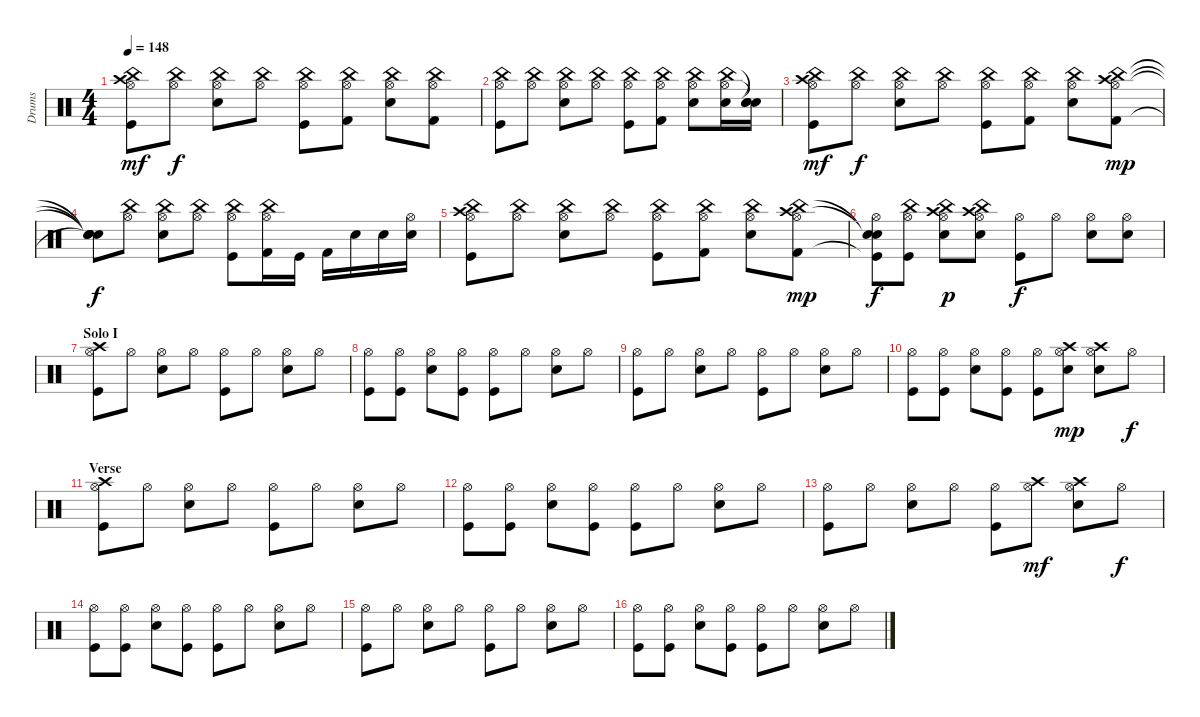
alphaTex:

\track ("Drums" "Drums") {instrument percussion}
\staff {score}
\articulation defaults
\ts (4 4)
\tempo 148
\clef neutral
\ks c
("Crash high (hit)" "Hi-Hat (open)" "China (hit)" "Kick (hit)").8{dy mf} ("Hi-Hat (open)" "China (hit)").8{dy f} ("Hi-Hat (open)" "China (hit)" "Snare (hit) 2").8 ("Hi-Hat (open)" "China (hit)").8 ("Hi-Hat (open)" "China (hit)" "Kick (hit)").8 ("Hi-Hat (open)" "China (hit)" "Kick (hit) 2").8 ("Hi-Hat (open)" "China (hit)" "Snare (hit) 2").8 ("Hi-Hat (open)" "China (hit)" "Kick (hit) 2").8 |
("Hi-Hat (open)" "China (hit)" "Kick (hit)").8 ("Hi-Hat (open)" "China (hit)").8 ("Hi-Hat (open)" "China (hit)" "Snare (hit) 2").8 ("Hi-Hat (open)" "China (hit)").8 ("Hi-Hat (open)" "China (hit)" "Kick (hit)").8 ("Hi-Hat (open)" "China (hit)" "Kick (hit) 2").8 ("Hi-Hat (open)" "China (hit)" "Snare (hit) 2").8 ("Hi-Hat (open)" "China (hit)" "Snare (hit) 2").16 ("Snare (hit)"{t} "Snare (hit)"{t} "Electric Snare (hit)").16 |
("Crash high (hit)" "Hi-Hat (open)" "China (hit)" "Kick (hit)").8{dy mf} ("Hi-Hat (open)" "China (hit)").8{dy f} ("Hi-Hat (open)" "China (hit)" "Snare (hit) 2").8 ("Hi-Hat (open)" "China (hit)").8 ("Hi-Hat (open)" "China (hit)" "Kick (hit)").8 ("Hi-Hat (open)" "China (hit)" "Kick (hit) 2").8 ("Hi-Hat (open)" "China (hit)" "Snare (hit) 2").8 ("Crash high (hit)" "Hi-Hat (open)" "China (hit)" "Kick (hit) 2").8{dy mp} |
("Snare (hit)"{t} "Snare (hit)"{t} "Snare (hit)"{t} "Snare (hit)"{t}).8{dy f} ("Hi-Hat (open)" "China (hit)").8 ("Hi-Hat (open)" "China (hit)" "Snare (hit) 2").8 ("Hi-Hat (open)" "China (hit)").8 ("Hi-Hat (open)" "China (hit)" "Kick (hit)").8 ("Hi-Hat (open)" "China (hit)" "Kick (hit) 2").16 "Kick (hit)".16 "Kick (hit) 2".16 "Snare (hit) 2".16 "Electric Snare (hit)".16 ("Hi-Hat (open)" "Snare (hit) 2").16 |
("Crash high (hit)" "Hi-Hat (open)" "China (hit)" "Kick (hit)").8 ("Hi-Hat (open)" "China (hit)").8 ("Hi-Hat (open)" "China (hit)" "Snare (hit) 2").8 ("Hi-Hat (open)" "China (hit)").8 ("Hi-Hat (open)" "China (hit)" "Kick (hit)").8 ("Hi-Hat (open)" "China (hit)" "Kick (hit) 2").8 ("Hi-Hat (open)" "China (hit)" "Snare (hit) 2").8 ("Crash high (hit)" "Hi-Hat (open)" "China (hit)" "Kick (hit) 2").8{dy mp} |
("Snare (hit)"{t} "Hi-Hat (open)" "Snare (hit)"{t} "Kick (hit)"{t}).8{dy f} ("Hi-Hat (open)" "China (hit)" "Kick (hit)").8 ("Crash high (hit)" "Hi-Hat (open)" "China (hit)" "Snare (hit) 2").8{dy p} ("Crash high (hit)" "Hi-Hat (open)" "China (hit)" "Snare (hit) 2").8 ("Hi-Hat (open)" "Kick (hit)").8{dy f} "Hi-Hat (open)".8 ("Hi-Hat (open)" "Snare (hit) 2").8 ("Hi-Hat (open)" "Snare (hit) 2").8 |
\section ("" "Solo I")
("Crash high (hit)" "Hi-Hat (open)" "Kick (hit)").8 "Hi-Hat (open)".8 ("Hi-Hat (open)" "Snare (hit) 2").8 "Hi-Hat (open)".8 ("Hi-Hat (open)" "Kick (hit)").8 "Hi-Hat (open)".8 ("Hi-Hat (open)" "Snare (hit) 2").8 "Hi-Hat (open)".8 |
("Hi-Hat (open)" "Kick (hit)").8 ("Hi-Hat (open)" "Kick (hit)").8 ("Hi-Hat (open)" "Snare (hit) 2").8 ("Hi-Hat (open)" "Kick (hit)").8 ("Hi-Hat (open)" "Kick (hit)").8 "Hi-Hat (open)".8 ("Hi-Hat (open)" "Snare (hit) 2").8 "Hi-Hat (open)".8 |
("Hi-Hat (open)" "Kick (hit)").8 "Hi-Hat (open)".8 ("Hi-Hat (open)" "Snare (hit) 2").8 "Hi-Hat (open)".8 ("Hi-Hat (open)" "Kick (hit)").8 "Hi-Hat (open)".8 ("Hi-Hat (open)" "Snare (hit) 2").8 "Hi-Hat (open)".8 |
("Hi-Hat (open)" "Kick (hit)").8 ("Hi-Hat (open)" "Kick (hit)").8 ("Hi-Hat (open)" "Snare (hit) 2").8 ("Hi-Hat (open)" "Kick (hit)").8 ("Hi-Hat (open)" "Kick (hit)").8 ("Crash high (hit)" "Hi-Hat (open)" "Snare (hit) 2").8{dy mp} ("Crash high (hit)" "Hi-Hat (open)" "Snare (hit) 2").8 "Hi-Hat (open)".8{dy f} |
\section ("" "Verse")
("Crash high (hit)" "Hi-Hat (open)" "Kick (hit)").8 "Hi-Hat (open)".8 ("Hi-Hat (open)" "Snare (hit) 2").8 "Hi-Hat (open)".8 ("Hi-Hat (open)" "Kick (hit)").8 "Hi-Hat (open)".8 ("Hi-Hat (open)" "Snare (hit) 2").8 "Hi-Hat (open)".8 |
("Hi-Hat (open)" "Kick (hit)").8 ("Hi-Hat (open)" "Kick (hit)").8 ("Hi-Hat (open)" "Snare (hit) 2").8 ("Hi-Hat (open)" "Kick (hit)").8 ("Hi-Hat (open)" "Kick (hit)").8 "Hi-Hat (open)".8 ("Hi-Hat (open)" "Snare (hit) 2").8 "Hi-Hat (open)".8 |
("Hi-Hat (open)" "Kick (hit)").8 "Hi-Hat (open)".8 ("Hi-Hat (open)" "Snare (hit) 2").8 "Hi-Hat (open)".8 ("Hi-Hat (open)" "Kick (hit)").8 ("Crash high (hit)" "Hi-Hat (open)").8{dy mf} ("Crash high (hit)" "Hi-Hat (open)" "Snare (hit) 2").8 "Hi-Hat (open)".8{dy f} |
("Hi-Hat (open)" "Kick (hit)").8 ("Hi-Hat (open)" "Kick (hit)").8 ("Hi-Hat (open)" "Snare (hit) 2").8 ("Hi-Hat (open)" "Kick (hit)").8 ("Hi-Hat (open)" "Kick (hit)").8 "Hi-Hat (open)".8 ("Hi-Hat (open)" "Snare (hit) 2").8 "Hi-Hat (open)".8 |
("Hi-Hat (open)" "Kick (hit)").8 "Hi-Hat (open)".8 ("Hi-Hat (open)" "Snare (hit) 2").8 "Hi-Hat (open)".8 ("Hi-Hat (open)" "Kick (hit)").8 "Hi-Hat (open)".8 ("Hi-Hat (open)" "Snare (hit) 2").8 "Hi-Hat (open)".8 |
("Hi-Hat (open)" "Kick (hit)").8 ("Hi-Hat (open)" "Kick (hit)").8 ("Hi-Hat (open)" "Snare (hit) 2").8 ("Hi-Hat (open)" "Kick (hit)").8 ("Hi-Hat (open)" "Kick (hit)").8 "Hi-Hat (open)".8 ("Hi-Hat (open)" "Snare (hit) 2").8 "Hi-Hat (open)".8
